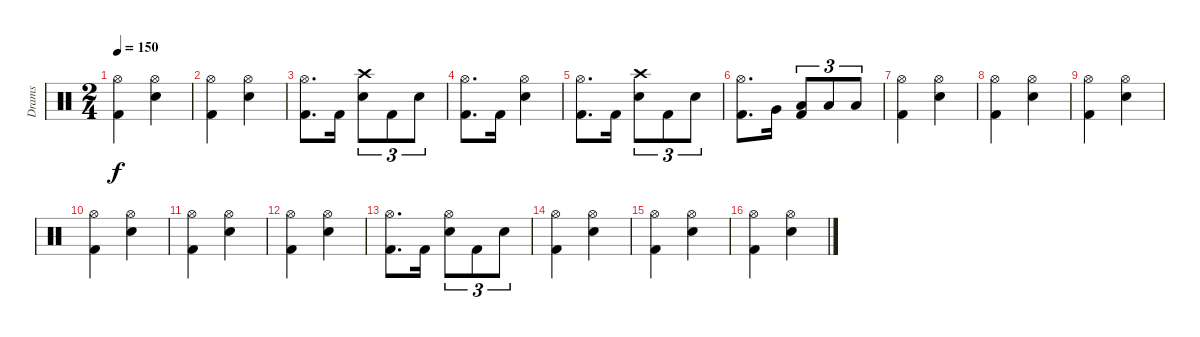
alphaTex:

\track ("Drams" "Drams") {instrument percussion}
\staff {score}
\articulation defaults
\ts (2 4)
\tempo 150
\clef neutral
\ks aminor
("Hi-Hat (open)" "Kick (hit) 2").4{dy f} ("Hi-Hat (open)" "Electric Snare (hit)").4 |
("Hi-Hat (open)" "Kick (hit) 2").4 ("Hi-Hat (open)" "Electric Snare (hit)").4 |
("Kick (hit) 2" "Hi-Hat (open)").8{d} "Kick (hit) 2".16 ("Electric Snare (hit)" "Crash high (hit)").8{tu (3 2)} "Kick (hit) 2".8{tu (3 2)} "Electric Snare (hit)".8{tu (3 2)} |
("Kick (hit) 2" "Hi-Hat (open)").8{d} "Kick (hit) 2".16 ("Electric Snare (hit)" "Hi-Hat (open)").4 |
("Kick (hit) 2" "Hi-Hat (open)").8{d} "Kick (hit) 2".16 ("Electric Snare (hit)" "Crash high (hit)").8{tu (3 2)} "Kick (hit) 2".8{tu (3 2)} "Electric Snare (hit)".8{tu (3 2)} |
("Kick (hit) 2" "Hi-Hat (open)").8{d} "Very Low Tom (hit)".16 ("Low Tom (hit)" "Kick (hit) 2").8{tu (3 2)} "Low Tom (hit)".8{tu (3 2)} "Low Tom (hit)".8{tu (3 2)} |
("Hi-Hat (open)" "Kick (hit) 2").4 ("Hi-Hat (open)" "Electric Snare (hit)").4 |
("Hi-Hat (open)" "Kick (hit) 2").4 ("Hi-Hat (open)" "Electric Snare (hit)").4 |
("Hi-Hat (open)" "Kick (hit) 2").4 ("Hi-Hat (open)" "Electric Snare (hit)").4 |
("Hi-Hat (open)" "Kick (hit) 2").4 ("Hi-Hat (open)" "Electric Snare (hit)").4 |
("Hi-Hat (open)" "Kick (hit) 2").4 ("Hi-Hat (open)" "Electric Snare (hit)").4 |
("Hi-Hat (open)" "Kick (hit) 2").4 ("Hi-Hat (open)" "Electric Snare (hit)").4 |
("Kick (hit) 2" "Hi-Hat (open)").8{d} "Kick (hit) 2".16 ("Electric Snare (hit)" "Hi-Hat (open)").8{tu (3 2)} "Kick (hit) 2".8{tu (3 2)} "Electric Snare (hit)".8{tu (3 2)} |
("Hi-Hat (open)" "Kick (hit) 2").4 ("Hi-Hat (open)" "Electric Snare (hit)").4 |
("Hi-Hat (open)" "Kick (hit) 2").4 ("Hi-Hat (open)" "Electric Snare (hit)").4 |
("Hi-Hat (open)" "Kick (hit) 2").4 ("Hi-Hat (open)" "Electric Snare (hit)").4
